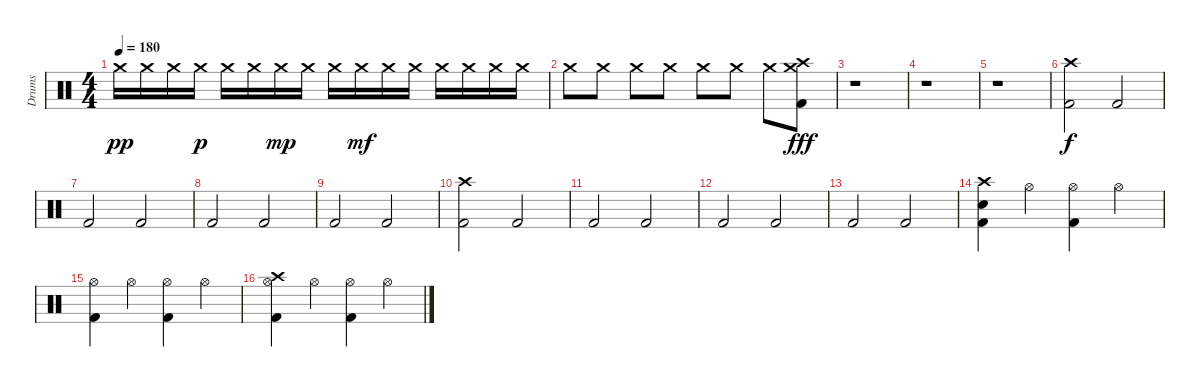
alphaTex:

\track ("Drums" "Drums") {instrument percussion}
\staff {score}
\articulation defaults
\ts (4 4)
\tempo 180
\clef neutral
\ks c "Crash medium (hit)".16{dy pp} "Crash medium (hit)".16 "Crash medium (hit)".16 "Crash medium (hit)".16{dy p} "Crash medium (hit)".16 "Crash medium (hit)".16 "Crash medium (hit)".16{dy mp} "Crash medium (hit)".16 "Crash medium (hit)".16 "Crash medium (hit)".16{dy mf} "Crash medium (hit)".16 "Crash medium (hit)".16 "Crash medium (hit)".16 "Crash medium (hit)".16 "Crash medium (hit)".16 "Crash medium (hit)".16
|
"Crash medium (hit)".8 "Crash medium (hit)".8 "Crash medium (hit)".8 "Crash medium (hit)".8 "Crash medium (hit)".8 "Crash medium (hit)".8 "Crash medium (hit)".8 ("Crash high (hit)" "Crash medium (hit)" "Kick (hit) 2").8{dy fff} |
r.1 |
r.1 |
r.1 |
("Crash high (hit)" "Kick (hit) 2").2{dy f} "Kick (hit) 2".2 |
"Kick (hit) 2".2 "Kick (hit) 2".2 |
"Kick (hit) 2".2 "Kick (hit) 2".2 |
"Kick (hit) 2".2 "Kick (hit) 2".2 |
("Crash high (hit)" "Kick (hit) 2").2 "Kick (hit) 2".2 |
"Kick (hit) 2".2 "Kick (hit) 2".2 |
"Kick (hit) 2".2 "Kick (hit) 2".2 |
"Kick (hit) 2".2 "Kick (hit) 2".2 |
("Crash high (hit)" "Electric Snare (hit)" "Kick (hit) 2").4 "Hi-Hat (open)".4 ("Hi-Hat (open)" "Kick (hit) 2").4 "Hi-Hat (open)".4 |
("Hi-Hat (open)" "Kick (hit) 2").4 "Hi-Hat (open)".4 ("Hi-Hat (open)" "Kick (hit) 2").4 "Hi-Hat (open)".4 |
("Crash high (hit)" "Hi-Hat (open)" "Kick (hit) 2").4 "Hi-Hat (open)".4 ("Hi-Hat (open)" "Kick (hit) 2").4 "Hi-Hat (open)".4
